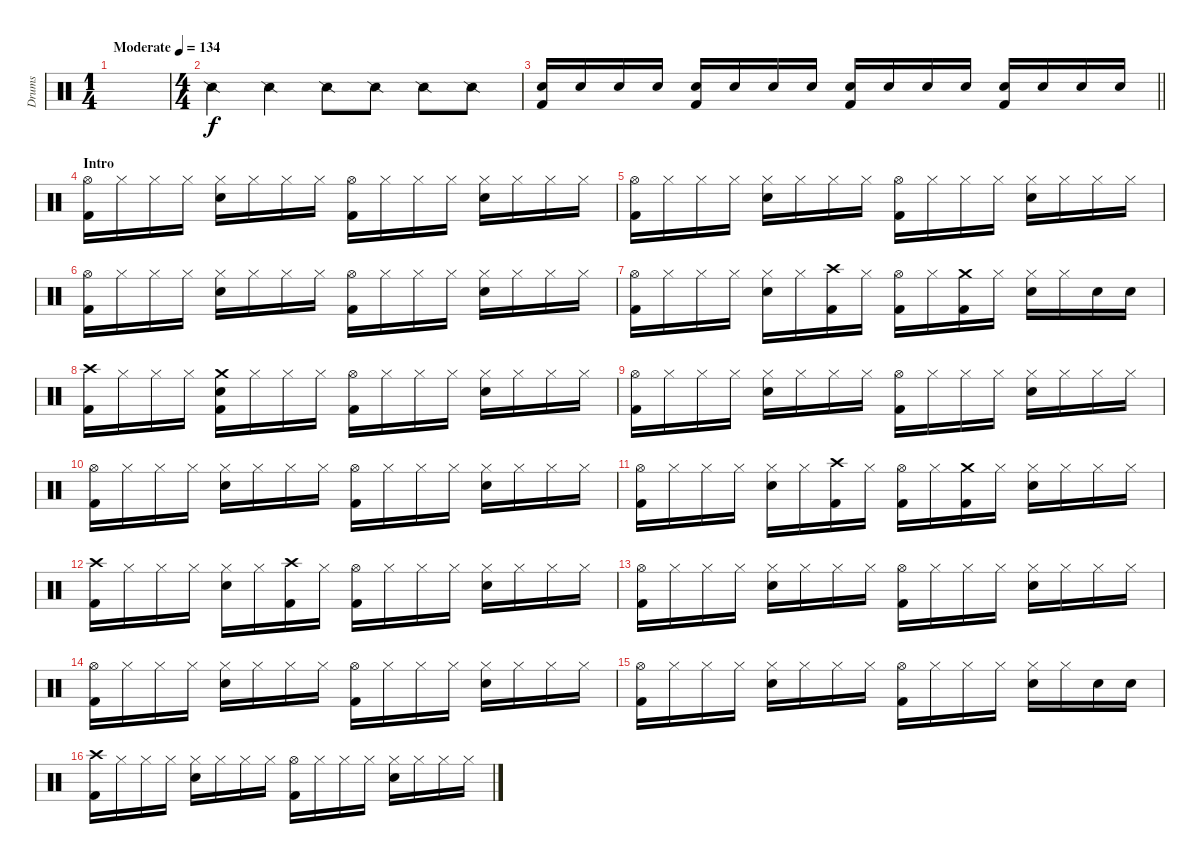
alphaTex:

\track ("Drums" "Drums") {instrument percussion}
\staff {score}
\articulation defaults
\ts (1 4)
\tempo (134 "Moderate")
\clef neutral
\ks c
|
\ts (4 4)
"Snare (side stick) 2".4 "Snare (side stick) 2".4 "Snare (side stick) 2".8 "Snare (side stick) 2".8 "Snare (side stick) 2".8 "Snare (side stick) 2".8 |
\barLineRight lightlight
("Snare (hit) 2" "Kick (hit) 2").16 "Snare (hit) 2".16 "Snare (hit) 2".16 "Snare (hit) 2".16 ("Snare (hit) 2" "Kick (hit) 2").16 "Snare (hit) 2".16 "Snare (hit) 2".16 "Snare (hit) 2".16 ("Snare (hit) 2" "Kick (hit) 2").16 "Snare (hit) 2".16 "Snare (hit) 2".16 "Snare (hit) 2".16 ("Snare (hit) 2" "Kick (hit) 2").16 "Snare (hit) 2".16 "Snare (hit) 2".16 "Snare (hit) 2".16 |
\section ("" "Intro")
("Hi-Hat (open)" "Kick (hit) 2").16 "Hi-Hat (closed)".16 "Hi-Hat (closed)".16 "Hi-Hat (closed)".16 ("Hi-Hat (closed)" "Snare (hit) 2").16 "Hi-Hat (closed)".16 "Hi-Hat (closed)".16 "Hi-Hat (closed)".16 ("Hi-Hat (open)" "Kick (hit) 2").16 "Hi-Hat (closed)".16 "Hi-Hat (closed)".16 "Hi-Hat (closed)".16 ("Hi-Hat (closed)" "Snare (hit) 2").16 "Hi-Hat (closed)".16 "Hi-Hat (closed)".16 "Hi-Hat (closed)".16 |
("Hi-Hat (open)" "Kick (hit) 2").16 "Hi-Hat (closed)".16 "Hi-Hat (closed)".16 "Hi-Hat (closed)".16 ("Hi-Hat (closed)" "Snare (hit) 2").16 "Hi-Hat (closed)".16 "Hi-Hat (closed)".16 "Hi-Hat (closed)".16 ("Hi-Hat (open)" "Kick (hit) 2").16 "Hi-Hat (closed)".16 "Hi-Hat (closed)".16 "Hi-Hat (closed)".16 ("Hi-Hat (closed)" "Snare (hit) 2").16 "Hi-Hat (closed)".16 "Hi-Hat (closed)".16 "Hi-Hat (closed)".16 |
("Hi-Hat (open)" "Kick (hit) 2").16 "Hi-Hat (closed)".16 "Hi-Hat (closed)".16 "Hi-Hat (closed)".16 ("Hi-Hat (closed)" "Snare (hit) 2").16 "Hi-Hat (closed)".16 "Hi-Hat (closed)".16 "Hi-Hat (closed)".16 ("Hi-Hat (open)" "Kick (hit) 2").16 "Hi-Hat (closed)".16 "Hi-Hat (closed)".16 "Hi-Hat (closed)".16 ("Hi-Hat (closed)" "Snare (hit) 2").16 "Hi-Hat (closed)".16 "Hi-Hat (closed)".16 "Hi-Hat (closed)".16 |
("Hi-Hat (open)" "Kick (hit) 2").16 "Hi-Hat (closed)".16 "Hi-Hat (closed)".16 "Hi-Hat (closed)".16 ("Hi-Hat (closed)" "Snare (hit) 2").16 "Hi-Hat (closed)".16 ("Crash high (hit)" "Kick (hit) 2").16 "Hi-Hat (closed)".16 ("Hi-Hat (open)" "Kick (hit) 2").16 "Hi-Hat (closed)".16 ("Crash medium (hit)" "Kick (hit) 2").16 "Hi-Hat (closed)".16 ("Hi-Hat (closed)" "Snare (hit) 2").16 "Hi-Hat (closed)".16 "Snare (hit) 2".16 "Snare (hit) 2".16 |
("Crash high (hit)" "Kick (hit) 2").16 "Hi-Hat (closed)".16 "Hi-Hat (closed)".16 "Hi-Hat (closed)".16 ("Crash medium (hit)" "Snare (hit) 2" "Kick (hit) 2").16 "Hi-Hat (closed)".16 "Hi-Hat (closed)".16 "Hi-Hat (closed)".16 ("Hi-Hat (open)" "Kick (hit) 2").16 "Hi-Hat (closed)".16 "Hi-Hat (closed)".16 "Hi-Hat (closed)".16 ("Hi-Hat (closed)" "Snare (hit) 2").16 "Hi-Hat (closed)".16 "Hi-Hat (closed)".16 "Hi-Hat (closed)".16 |
("Hi-Hat (open)" "Kick (hit) 2").16 "Hi-Hat (closed)".16 "Hi-Hat (closed)".16 "Hi-Hat (closed)".16 ("Hi-Hat (closed)" "Snare (hit) 2").16 "Hi-Hat (closed)".16 "Hi-Hat (closed)".16 "Hi-Hat (closed)".16 ("Hi-Hat (open)" "Kick (hit) 2").16 "Hi-Hat (closed)".16 "Hi-Hat (closed)".16 "Hi-Hat (closed)".16 ("Hi-Hat (closed)" "Snare (hit) 2").16 "Hi-Hat (closed)".16 "Hi-Hat (closed)".16 "Hi-Hat (closed)".16 |
("Hi-Hat (open)" "Kick (hit) 2").16 "Hi-Hat (closed)".16 "Hi-Hat (closed)".16 "Hi-Hat (closed)".16 ("Hi-Hat (closed)" "Snare (hit) 2").16 "Hi-Hat (closed)".16 "Hi-Hat (closed)".16 "Hi-Hat (closed)".16 ("Hi-Hat (open)" "Kick (hit) 2").16 "Hi-Hat (closed)".16 "Hi-Hat (closed)".16 "Hi-Hat (closed)".16 ("Hi-Hat (closed)" "Snare (hit) 2").16 "Hi-Hat (closed)".16 "Hi-Hat (closed)".16 "Hi-Hat (closed)".16 |
("Hi-Hat (open)" "Kick (hit) 2").16 "Hi-Hat (closed)".16 "Hi-Hat (closed)".16 "Hi-Hat (closed)".16 ("Hi-Hat (closed)" "Snare (hit) 2").16 "Hi-Hat (closed)".16 ("Crash high (hit)" "Kick (hit) 2").16 "Hi-Hat (closed)".16 ("Hi-Hat (open)" "Kick (hit) 2").16 "Hi-Hat (closed)".16 ("Crash medium (hit)" "Kick (hit) 2").16 "Hi-Hat (closed)".16 ("Hi-Hat (closed)" "Snare (hit) 2").16 "Hi-Hat (closed)".16 "Hi-Hat (closed)".16 "Hi-Hat (closed)".16 |
("Crash high (hit)" "Kick (hit) 2").16 "Hi-Hat (closed)".16 "Hi-Hat (closed)".16 "Hi-Hat (closed)".16 ("Hi-Hat (closed)" "Snare (hit) 2").16 "Hi-Hat (closed)".16 ("Crash high (hit)" "Kick (hit) 2").16 "Hi-Hat (closed)".16 ("Hi-Hat (open)" "Kick (hit) 2").16 "Hi-Hat (closed)".16 "Hi-Hat (closed)".16 "Hi-Hat (closed)".16 ("Hi-Hat (closed)" "Snare (hit) 2").16 "Hi-Hat (closed)".16 "Hi-Hat (closed)".16 "Hi-Hat (closed)".16 |
("Hi-Hat (open)" "Kick (hit) 2").16 "Hi-Hat (closed)".16 "Hi-Hat (closed)".16 "Hi-Hat (closed)".16 ("Hi-Hat (closed)" "Snare (hit) 2").16 "Hi-Hat (closed)".16 "Hi-Hat (closed)".16 "Hi-Hat (closed)".16 ("Hi-Hat (open)" "Kick (hit) 2").16 "Hi-Hat (closed)".16 "Hi-Hat (closed)".16 "Hi-Hat (closed)".16 ("Hi-Hat (closed)" "Snare (hit) 2").16 "Hi-Hat (closed)".16 "Hi-Hat (closed)".16 "Hi-Hat (closed)".16 |
("Hi-Hat (open)" "Kick (hit) 2").16 "Hi-Hat (closed)".16 "Hi-Hat (closed)".16 "Hi-Hat (closed)".16 ("Hi-Hat (closed)" "Snare (hit) 2").16 "Hi-Hat (closed)".16 "Hi-Hat (closed)".16 "Hi-Hat (closed)".16 ("Hi-Hat (open)" "Kick (hit) 2").16 "Hi-Hat (closed)".16 "Hi-Hat (closed)".16 "Hi-Hat (closed)".16 ("Hi-Hat (closed)" "Snare (hit) 2").16 "Hi-Hat (closed)".16 "Hi-Hat (closed)".16 "Hi-Hat (closed)".16 |
("Hi-Hat (open)" "Kick (hit) 2").16 "Hi-Hat (closed)".16 "Hi-Hat (closed)".16 "Hi-Hat (closed)".16 ("Hi-Hat (closed)" "Snare (hit) 2").16 "Hi-Hat (closed)".16 "Hi-Hat (closed)".16 "Hi-Hat (closed)".16 ("Hi-Hat (open)" "Kick (hit) 2").16 "Hi-Hat (closed)".16 "Hi-Hat (closed)".16 "Hi-Hat (closed)".16 ("Hi-Hat (closed)" "Snare (hit) 2").16 "Hi-Hat (closed)".16 "Snare (hit) 2".16 "Snare (hit) 2".16 |
("Crash high (hit)" "Kick (hit) 2").16 "Hi-Hat (closed)".16 "Hi-Hat (closed)".16 "Hi-Hat (closed)".16 ("Hi-Hat (closed)" "Snare (hit) 2").16 "Hi-Hat (closed)".16 "Hi-Hat (closed)".16 "Hi-Hat (closed)".16 ("Hi-Hat (open)" "Kick (hit) 2").16 "Hi-Hat (closed)".16 "Hi-Hat (closed)".16 "Hi-Hat (closed)".16 ("Hi-Hat (closed)" "Snare (hit) 2").16 "Hi-Hat (closed)".16 "Hi-Hat (closed)".16 "Hi-Hat (closed)".16
